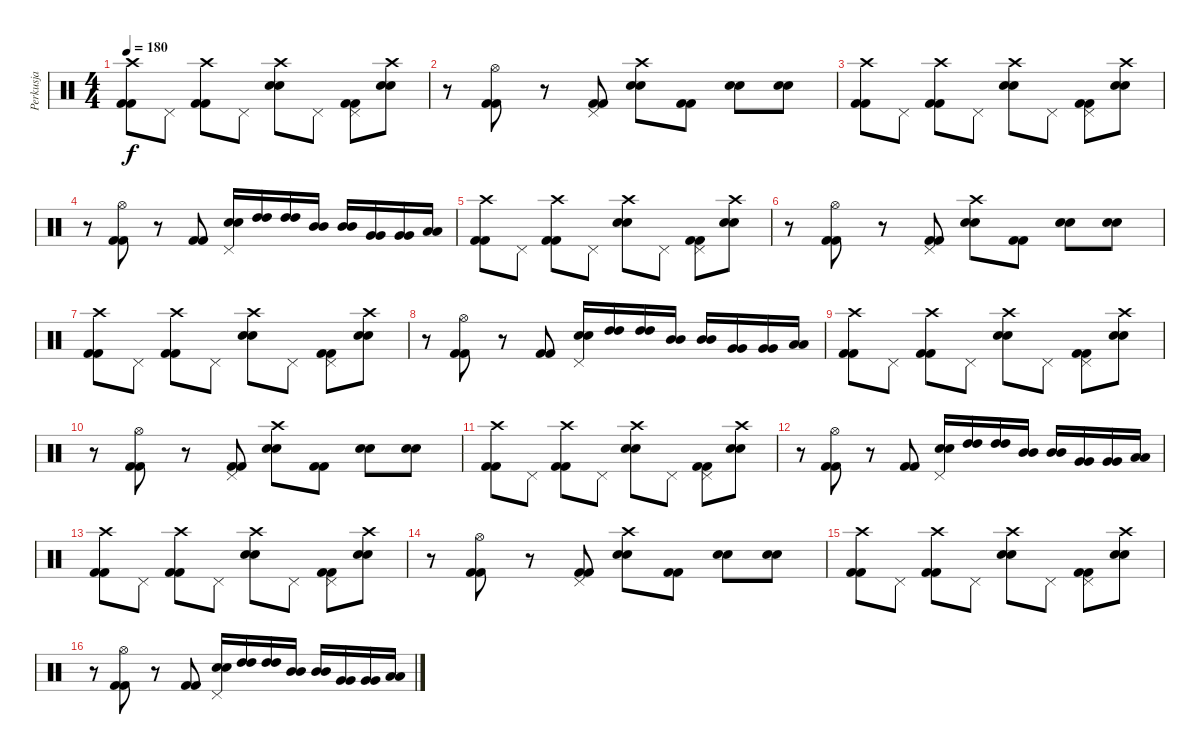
\track ("Perkusja" "Perkusja") {instrument percussion}
\staff {score}
\articulation defaults
\ts (4 4)
\tempo 180
\clef neutral
\ks c
("Crash high (hit)" "Kick (hit) 2" "Kick (hit) 2").8{dy f} "Pedal Hi-Hat (hit)".8 ("Crash high (hit)" "Kick (hit) 2" "Kick (hit) 2").8 "Pedal Hi-Hat (hit)".8 ("Crash high (hit)" "Snare (hit) 2" "Snare (hit) 2").8 "Pedal Hi-Hat (hit)".8 ("Pedal Hi-Hat (hit)" "Kick (hit) 2" "Kick (hit) 2").8 ("Crash high (hit)" "Snare (hit) 2" "Snare (hit) 2").8 |
r.8 ("Hi-Hat (open)" "Kick (hit) 2" "Kick (hit) 2").8 r.8 ("Pedal Hi-Hat (hit)" "Kick (hit) 2" "Kick (hit) 2").8 ("Crash high (hit)" "Snare (hit) 2" "Snare (hit) 2").8 ("Kick (hit) 2" "Kick (hit) 2").8 ("Snare (hit) 2" "Snare (hit) 2").8 ("Snare (hit) 2" "Snare (hit) 2").8 |
("Crash high (hit)" "Kick (hit) 2" "Kick (hit) 2").8 "Pedal Hi-Hat (hit)".8 ("Crash high (hit)" "Kick (hit) 2" "Kick (hit) 2").8 "Pedal Hi-Hat (hit)".8 ("Crash high (hit)" "Snare (hit) 2" "Snare (hit) 2").8 "Pedal Hi-Hat (hit)".8 ("Pedal Hi-Hat (hit)" "Kick (hit) 2" "Kick (hit) 2").8 ("Crash high (hit)" "Snare (hit) 2" "Snare (hit) 2").8 |
r.8 ("Hi-Hat (open)" "Kick (hit) 2" "Kick (hit) 2").8 r.8 ("Kick (hit) 2" "Kick (hit) 2").8 ("Snare (hit) 2" "Snare (hit) 2" "Pedal Hi-Hat (hit)").16 ("High Tom (hit)" "High Tom (hit)").16 ("High Tom (hit)" "High Tom (hit)").16 ("Mid Tom (hit)" "Mid Tom (hit)").16 ("Mid Tom (hit)" "Mid Tom (hit)").16 ("Very Low Tom (hit)" "Very Low Tom (hit)").16 ("Very Low Tom (hit)" "Very Low Tom (hit)").16 ("Low Floor Tom (hit)" "Low Floor Tom (hit)").16 |
("Crash high (hit)" "Kick (hit) 2" "Kick (hit) 2").8 "Pedal Hi-Hat (hit)".8 ("Crash high (hit)" "Kick (hit) 2" "Kick (hit) 2").8 "Pedal Hi-Hat (hit)".8 ("Crash high (hit)" "Snare (hit) 2" "Snare (hit) 2").8 "Pedal Hi-Hat (hit)".8 ("Pedal Hi-Hat (hit)" "Kick (hit) 2" "Kick (hit) 2").8 ("Crash high (hit)" "Snare (hit) 2" "Snare (hit) 2").8 |
r.8 ("Hi-Hat (open)" "Kick (hit) 2" "Kick (hit) 2").8 r.8 ("Pedal Hi-Hat (hit)" "Kick (hit) 2" "Kick (hit) 2").8 ("Crash high (hit)" "Snare (hit) 2" "Snare (hit) 2").8 ("Kick (hit) 2" "Kick (hit) 2").8 ("Snare (hit) 2" "Snare (hit) 2").8 ("Snare (hit) 2" "Snare (hit) 2").8 |
("Crash high (hit)" "Kick (hit) 2" "Kick (hit) 2").8 "Pedal Hi-Hat (hit)".8 ("Crash high (hit)" "Kick (hit) 2" "Kick (hit) 2").8 "Pedal Hi-Hat (hit)".8 ("Crash high (hit)" "Snare (hit) 2" "Snare (hit) 2").8 "Pedal Hi-Hat (hit)".8 ("Pedal Hi-Hat (hit)" "Kick (hit) 2" "Kick (hit) 2").8 ("Crash high (hit)" "Snare (hit) 2" "Snare (hit) 2").8 |
r.8 ("Hi-Hat (open)" "Kick (hit) 2" "Kick (hit) 2").8 r.8 ("Kick (hit) 2" "Kick (hit) 2").8 ("Snare (hit) 2" "Snare (hit) 2" "Pedal Hi-Hat (hit)").16 ("High Tom (hit)" "High Tom (hit)").16 ("High Tom (hit)" "High Tom (hit)").16 ("Mid Tom (hit)" "Mid Tom (hit)").16 ("Mid Tom (hit)" "Mid Tom (hit)").16 ("Very Low Tom (hit)" "Very Low Tom (hit)").16 ("Very Low Tom (hit)" "Very Low Tom (hit)").16 ("Low Floor Tom (hit)" "Low Floor Tom (hit)").16 |
("Crash high (hit)" "Kick (hit) 2" "Kick (hit) 2").8 "Pedal Hi-Hat (hit)".8 ("Crash high (hit)" "Kick (hit) 2" "Kick (hit) 2").8 "Pedal Hi-Hat (hit)".8 ("Crash high (hit)" "Snare (hit) 2" "Snare (hit) 2").8 "Pedal Hi-Hat (hit)".8 ("Pedal Hi-Hat (hit)" "Kick (hit) 2" "Kick (hit) 2").8 ("Crash high (hit)" "Snare (hit) 2" "Snare (hit) 2").8 |
r.8 ("Hi-Hat (open)" "Kick (hit) 2" "Kick (hit) 2").8 r.8 ("Pedal Hi-Hat (hit)" "Kick (hit) 2" "Kick (hit) 2").8 ("Crash high (hit)" "Snare (hit) 2" "Snare (hit) 2").8 ("Kick (hit) 2" "Kick (hit) 2").8 ("Snare (hit) 2" "Snare (hit) 2").8 ("Snare (hit) 2" "Snare (hit) 2").8 |
("Crash high (hit)" "Kick (hit) 2" "Kick (hit) 2").8 "Pedal Hi-Hat (hit)".8 ("Crash high (hit)" "Kick (hit) 2" "Kick (hit) 2").8 "Pedal Hi-Hat (hit)".8 ("Crash high (hit)" "Snare (hit) 2" "Snare (hit) 2").8 "Pedal Hi-Hat (hit)".8 ("Pedal Hi-Hat (hit)" "Kick (hit) 2" "Kick (hit) 2").8 ("Crash high (hit)" "Snare (hit) 2" "Snare (hit) 2").8 |
r.8 ("Hi-Hat (open)" "Kick (hit) 2" "Kick (hit) 2").8 r.8 ("Kick (hit) 2" "Kick (hit) 2").8 ("Snare (hit) 2" "Snare (hit) 2" "Pedal Hi-Hat (hit)").16 ("High Tom (hit)" "High Tom (hit)").16 ("High Tom (hit)" "High Tom (hit)").16 ("Mid Tom (hit)" "Mid Tom (hit)").16 ("Mid Tom (hit)" "Mid Tom (hit)").16 ("Very Low Tom (hit)" "Very Low Tom (hit)").16 ("Very Low Tom (hit)" "Very Low Tom (hit)").16 ("Low Floor Tom (hit)" "Low Floor Tom (hit)").16 |
("Crash high (hit)" "Kick (hit) 2" "Kick (hit) 2").8 "Pedal Hi-Hat (hit)".8 ("Crash high (hit)" "Kick (hit) 2" "Kick (hit) 2").8 "Pedal Hi-Hat (hit)".8 ("Crash high (hit)" "Snare (hit) 2" "Snare (hit) 2").8 "Pedal Hi-Hat (hit)".8 ("Pedal Hi-Hat (hit)" "Kick (hit) 2" "Kick (hit) 2").8 ("Crash high (hit)" "Snare (hit) 2" "Snare (hit) 2").8 |
r.8 ("Hi-Hat (open)" "Kick (hit) 2" "Kick (hit) 2").8 r.8 ("Pedal Hi-Hat (hit)" "Kick (hit) 2" "Kick (hit) 2").8 ("Crash high (hit)" "Snare (hit) 2" "Snare (hit) 2").8 ("Kick (hit) 2" "Kick (hit) 2").8 ("Snare (hit) 2" "Snare (hit) 2").8 ("Snare (hit) 2" "Snare (hit) 2").8 |
("Crash high (hit)" "Kick (hit) 2" "Kick (hit) 2").8 "Pedal Hi-Hat (hit)".8 ("Crash high (hit)" "Kick (hit) 2" "Kick (hit) 2").8 "Pedal Hi-Hat (hit)".8 ("Crash high (hit)" "Snare (hit) 2" "Snare (hit) 2").8 "Pedal Hi-Hat (hit)".8 ("Pedal Hi-Hat (hit)" "Kick (hit) 2" "Kick (hit) 2").8 ("Crash high (hit)" "Snare (hit) 2" "Snare (hit) 2").8 |
r.8 ("Hi-Hat (open)" "Kick (hit) 2" "Kick (hit) 2").8 r.8 ("Kick (hit) 2" "Kick (hit) 2").8 ("Snare (hit) 2" "Snare (hit) 2" "Pedal Hi-Hat (hit)").16 ("High Tom (hit)" "High Tom (hit)").16 ("High Tom (hit)" "High Tom (hit)").16 ("Mid Tom (hit)" "Mid Tom (hit)").16 ("Mid Tom (hit)" "Mid Tom (hit)").16 ("Very Low Tom (hit)" "Very Low Tom (hit)").16 ("Very Low Tom (hit)" "Very Low Tom (hit)").16 ("Low Floor Tom (hit)" "Low Floor Tom (hit)").16
